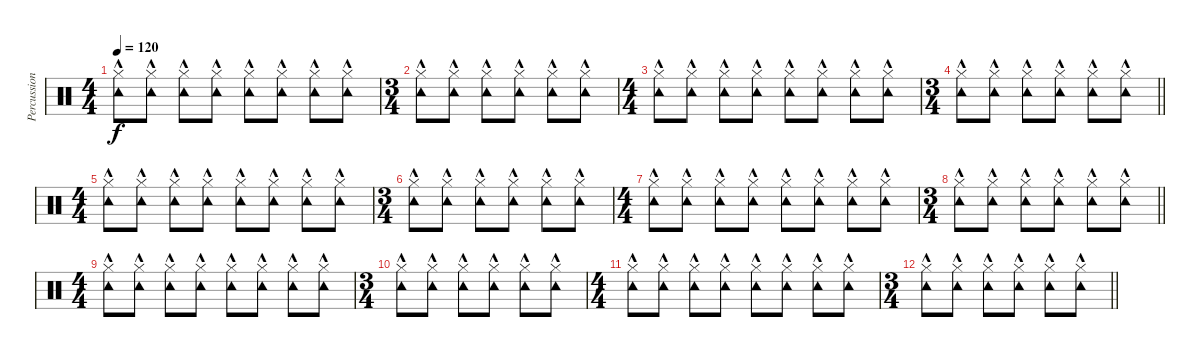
\track ("Percussion" "Percussion") {instrument percussion}
\staff {score}
\articulation defaults
\ts (4 4)
\tempo 120
\clef neutral
\ks c
("Tambourine (hit)"{hac} "Hi-Hat (closed)").8{dy f} ("Tambourine (hit)"{hac} "Hi-Hat (closed)").8 ("Tambourine (hit)"{hac} "Hi-Hat (closed)").8 ("Tambourine (hit)"{hac} "Hi-Hat (closed)").8 ("Tambourine (hit)"{hac} "Hi-Hat (closed)").8 ("Tambourine (hit)"{hac} "Hi-Hat (closed)").8 ("Tambourine (hit)"{hac} "Hi-Hat (closed)").8 ("Tambourine (hit)"{hac} "Hi-Hat (closed)").8 |
\ts (3 4)
("Tambourine (hit)"{hac} "Hi-Hat (closed)").8 ("Tambourine (hit)"{hac} "Hi-Hat (closed)").8 ("Tambourine (hit)"{hac} "Hi-Hat (closed)").8 ("Tambourine (hit)"{hac} "Hi-Hat (closed)").8 ("Tambourine (hit)"{hac} "Hi-Hat (closed)").8 ("Tambourine (hit)"{hac} "Hi-Hat (closed)").8 |
\ts (4 4)
("Tambourine (hit)"{hac} "Hi-Hat (closed)").8 ("Tambourine (hit)"{hac} "Hi-Hat (closed)").8 ("Tambourine (hit)"{hac} "Hi-Hat (closed)").8 ("Tambourine (hit)"{hac} "Hi-Hat (closed)").8 ("Tambourine (hit)"{hac} "Hi-Hat (closed)").8 ("Tambourine (hit)"{hac} "Hi-Hat (closed)").8 ("Tambourine (hit)"{hac} "Hi-Hat (closed)").8 ("Tambourine (hit)"{hac} "Hi-Hat (closed)").8 |
\ts (3 4)
\barLineRight lightlight
("Tambourine (hit)"{hac} "Hi-Hat (closed)").8 ("Tambourine (hit)"{hac} "Hi-Hat (closed)").8 ("Tambourine (hit)"{hac} "Hi-Hat (closed)").8 ("Tambourine (hit)"{hac} "Hi-Hat (closed)").8 ("Tambourine (hit)"{hac} "Hi-Hat (closed)").8 ("Tambourine (hit)"{hac} "Hi-Hat (closed)").8 |
\ts (4 4)
("Tambourine (hit)"{hac} "Hi-Hat (closed)").8 ("Tambourine (hit)"{hac} "Hi-Hat (closed)").8 ("Tambourine (hit)"{hac} "Hi-Hat (closed)").8 ("Tambourine (hit)"{hac} "Hi-Hat (closed)").8 ("Tambourine (hit)"{hac} "Hi-Hat (closed)").8 ("Tambourine (hit)"{hac} "Hi-Hat (closed)").8 ("Tambourine (hit)"{hac} "Hi-Hat (closed)").8 ("Tambourine (hit)"{hac} "Hi-Hat (closed)").8 |
\ts (3 4)
("Tambourine (hit)"{hac} "Hi-Hat (closed)").8 ("Tambourine (hit)"{hac} "Hi-Hat (closed)").8 ("Tambourine (hit)"{hac} "Hi-Hat (closed)").8 ("Tambourine (hit)"{hac} "Hi-Hat (closed)").8 ("Tambourine (hit)"{hac} "Hi-Hat (closed)").8 ("Tambourine (hit)"{hac} "Hi-Hat (closed)").8 |
\ts (4 4)
("Tambourine (hit)"{hac} "Hi-Hat (closed)").8 ("Tambourine (hit)"{hac} "Hi-Hat (closed)").8 ("Tambourine (hit)"{hac} "Hi-Hat (closed)").8 ("Tambourine (hit)"{hac} "Hi-Hat (closed)").8 ("Tambourine (hit)"{hac} "Hi-Hat (closed)").8 ("Tambourine (hit)"{hac} "Hi-Hat (closed)").8 ("Tambourine (hit)"{hac} "Hi-Hat (closed)").8 ("Tambourine (hit)"{hac} "Hi-Hat (closed)").8 |
\ts (3 4)
\barLineRight lightlight
("Tambourine (hit)"{hac} "Hi-Hat (closed)").8 ("Tambourine (hit)"{hac} "Hi-Hat (closed)").8 ("Tambourine (hit)"{hac} "Hi-Hat (closed)").8 ("Tambourine (hit)"{hac} "Hi-Hat (closed)").8 ("Tambourine (hit)"{hac} "Hi-Hat (closed)").8 ("Tambourine (hit)"{hac} "Hi-Hat (closed)").8 |
\ts (4 4)
("Tambourine (hit)"{hac} "Hi-Hat (closed)").8 ("Tambourine (hit)"{hac} "Hi-Hat (closed)").8 ("Tambourine (hit)"{hac} "Hi-Hat (closed)").8 ("Tambourine (hit)"{hac} "Hi-Hat (closed)").8 ("Tambourine (hit)"{hac} "Hi-Hat (closed)").8 ("Tambourine (hit)"{hac} "Hi-Hat (closed)").8 ("Tambourine (hit)"{hac} "Hi-Hat (closed)").8 ("Tambourine (hit)"{hac} "Hi-Hat (closed)").8 |
\ts (3 4)
("Tambourine (hit)"{hac} "Hi-Hat (closed)").8 ("Tambourine (hit)"{hac} "Hi-Hat (closed)").8 ("Tambourine (hit)"{hac} "Hi-Hat (closed)").8 ("Tambourine (hit)"{hac} "Hi-Hat (closed)").8 ("Tambourine (hit)"{hac} "Hi-Hat (closed)").8 ("Tambourine (hit)"{hac} "Hi-Hat (closed)").8 |
\ts (4 4)
("Tambourine (hit)"{hac} "Hi-Hat (closed)").8 ("Tambourine (hit)"{hac} "Hi-Hat (closed)").8 ("Tambourine (hit)"{hac} "Hi-Hat (closed)").8 ("Tambourine (hit)"{hac} "Hi-Hat (closed)").8 ("Tambourine (hit)"{hac} "Hi-Hat (closed)").8 ("Tambourine (hit)"{hac} "Hi-Hat (closed)").8 ("Tambourine (hit)"{hac} "Hi-Hat (closed)").8 ("Tambourine (hit)"{hac} "Hi-Hat (closed)").8 |
\ts (3 4)
\barLineRight lightlight
("Tambourine (hit)"{hac} "Hi-Hat (closed)").8 ("Tambourine (hit)"{hac} "Hi-Hat (closed)").8 ("Tambourine (hit)"{hac} "Hi-Hat (closed)").8 ("Tambourine (hit)"{hac} "Hi-Hat (closed)").8 ("Tambourine (hit)"{hac} "Hi-Hat (closed)").8 ("Tambourine (hit)"{hac} "Hi-Hat (closed)").8
